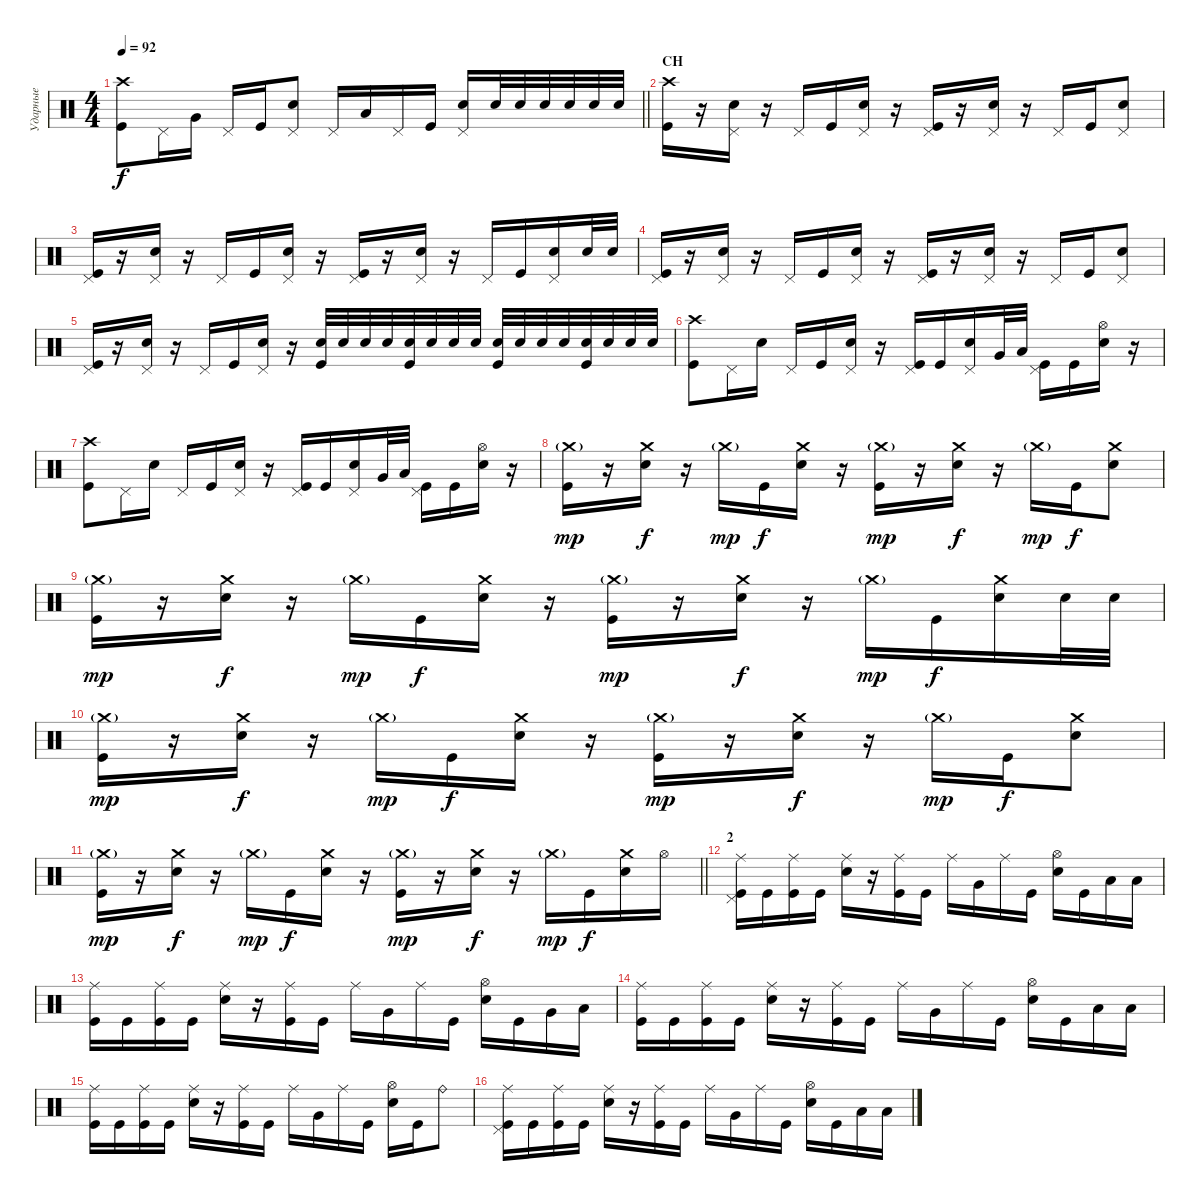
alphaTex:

\track ("Ударные" "Ударные") {instrument percussion}
\staff {score}
\articulation defaults
\ts (4 4)
\tempo 92
\clef neutral
\barLineRight lightlight
\ks c
("Kick (hit)" "Crash high (hit)").8{dy f} "Pedal Hi-Hat (hit)".16 "Very Low Tom (hit)".16 "Pedal Hi-Hat (hit)".16 "Kick (hit)".16 ("Snare (hit) 2" "Pedal Hi-Hat (hit)").8 "Pedal Hi-Hat (hit)".16 "Low Floor Tom (hit)".16 "Pedal Hi-Hat (hit)".16 "Kick (hit)".16 ("Snare (hit) 2" "Pedal Hi-Hat (hit)").16 "Snare (hit) 2".32 "Snare (hit) 2".32 "Snare (hit) 2".32 "Snare (hit) 2".32 "Snare (hit) 2".32 "Snare (hit) 2".32 |
\section ("" "CH")
("Kick (hit)" "Crash high (hit)").16 r.16 ("Snare (hit) 2" "Pedal Hi-Hat (hit)").16 r.16 "Pedal Hi-Hat (hit)".16 "Kick (hit)".16 ("Snare (hit) 2" "Pedal Hi-Hat (hit)").16 r.16 ("Kick (hit)" "Pedal Hi-Hat (hit)").16 r.16 ("Snare (hit) 2" "Pedal Hi-Hat (hit)").16 r.16 "Pedal Hi-Hat (hit)".16 "Kick (hit)".16 ("Snare (hit) 2" "Pedal Hi-Hat (hit)").8 |
("Kick (hit)" "Pedal Hi-Hat (hit)").16 r.16 ("Snare (hit) 2" "Pedal Hi-Hat (hit)").16 r.16 "Pedal Hi-Hat (hit)".16 "Kick (hit)".16 ("Snare (hit) 2" "Pedal Hi-Hat (hit)").16 r.16 ("Kick (hit)" "Pedal Hi-Hat (hit)").16 r.16 ("Snare (hit) 2" "Pedal Hi-Hat (hit)").16 r.16 "Pedal Hi-Hat (hit)".16 "Kick (hit)".16 ("Snare (hit) 2" "Pedal Hi-Hat (hit)").16 "Snare (hit) 2".32 "Snare (hit) 2".32 |
("Kick (hit)" "Pedal Hi-Hat (hit)").16 r.16 ("Snare (hit) 2" "Pedal Hi-Hat (hit)").16 r.16 "Pedal Hi-Hat (hit)".16 "Kick (hit)".16 ("Snare (hit) 2" "Pedal Hi-Hat (hit)").16 r.16 ("Kick (hit)" "Pedal Hi-Hat (hit)").16 r.16 ("Snare (hit) 2" "Pedal Hi-Hat (hit)").16 r.16 "Pedal Hi-Hat (hit)".16 "Kick (hit)".16 ("Snare (hit) 2" "Pedal Hi-Hat (hit)").8 |
("Kick (hit)" "Pedal Hi-Hat (hit)").16 r.16 ("Snare (hit) 2" "Pedal Hi-Hat (hit)").16 r.16 "Pedal Hi-Hat (hit)".16 "Kick (hit)".16 ("Snare (hit) 2" "Pedal Hi-Hat (hit)").16 r.16 ("Snare (hit) 2" "Kick (hit)").32 "Snare (hit) 2".32 "Snare (hit) 2".32 "Snare (hit) 2".32 ("Snare (hit) 2" "Kick (hit)").32 "Snare (hit) 2".32 "Snare (hit) 2".32 "Snare (hit) 2".32 ("Snare (hit) 2" "Kick (hit)").32 "Snare (hit) 2".32 "Snare (hit) 2".32 "Snare (hit) 2".32 ("Snare (hit) 2" "Kick (hit)").32 "Snare (hit) 2".32 "Snare (hit) 2".32 "Snare (hit) 2".32 |
("Kick (hit)" "Crash high (hit)").8 "Pedal Hi-Hat (hit)".16 "Snare (hit) 2".16 "Pedal Hi-Hat (hit)".16 "Kick (hit)".16 ("Snare (hit) 2" "Pedal Hi-Hat (hit)").16 r.16 ("Kick (hit)" "Pedal Hi-Hat (hit)").16 "Kick (hit)".16 ("Snare (hit) 2" "Pedal Hi-Hat (hit)").16 "Very Low Tom (hit)".32 "Low Floor Tom (hit)".32 ("Kick (hit)" "Pedal Hi-Hat (hit)").16 "Kick (hit)".16 ("Snare (hit) 2" "Hi-Hat (open)").16 r.16 |
("Kick (hit)" "Crash high (hit)").8 "Pedal Hi-Hat (hit)".16 "Snare (hit) 2".16 "Pedal Hi-Hat (hit)".16 "Kick (hit)".16 ("Snare (hit) 2" "Pedal Hi-Hat (hit)").16 r.16 ("Kick (hit)" "Pedal Hi-Hat (hit)").16 "Kick (hit)".16 ("Snare (hit) 2" "Pedal Hi-Hat (hit)").16 "Very Low Tom (hit)".32 "Low Floor Tom (hit)".32 ("Kick (hit)" "Pedal Hi-Hat (hit)").16 "Kick (hit)".16 ("Snare (hit) 2" "Hi-Hat (open)").16 r.16 |
("Kick (hit)" "Crash medium (hit)"{g}).16{dy mp} r.16 ("Snare (hit) 2" "Crash medium (hit)").16{dy f} r.16 "Crash medium (hit)"{g}.16{dy mp} "Kick (hit)".16{dy f} ("Snare (hit) 2" "Crash medium (hit)").16 r.16 ("Kick (hit)" "Crash medium (hit)"{g}).16{dy mp} r.16 ("Snare (hit) 2" "Crash medium (hit)").16{dy f} r.16 "Crash medium (hit)"{g}.16{dy mp} "Kick (hit)".16{dy f} ("Snare (hit) 2" "Crash medium (hit)").8 |
("Kick (hit)" "Crash medium (hit)"{g}).16{dy mp} r.16 ("Snare (hit) 2" "Crash medium (hit)").16{dy f} r.16 "Crash medium (hit)"{g}.16{dy mp} "Kick (hit)".16{dy f} ("Snare (hit) 2" "Crash medium (hit)").16 r.16 ("Kick (hit)" "Crash medium (hit)"{g}).16{dy mp} r.16 ("Snare (hit) 2" "Crash medium (hit)").16{dy f} r.16 "Crash medium (hit)"{g}.16{dy mp} "Kick (hit)".16{dy f} ("Snare (hit) 2" "Crash medium (hit)").16 "Snare (hit) 2".32 "Snare (hit) 2".32 |
("Kick (hit)" "Crash medium (hit)"{g}).16{dy mp} r.16 ("Snare (hit) 2" "Crash medium (hit)").16{dy f} r.16 "Crash medium (hit)"{g}.16{dy mp} "Kick (hit)".16{dy f} ("Snare (hit) 2" "Crash medium (hit)").16 r.16 ("Kick (hit)" "Crash medium (hit)"{g}).16{dy mp} r.16 ("Snare (hit) 2" "Crash medium (hit)").16{dy f} r.16 "Crash medium (hit)"{g}.16{dy mp} "Kick (hit)".16{dy f} ("Snare (hit) 2" "Crash medium (hit)").8 |
\barLineRight lightlight
("Kick (hit)" "Crash medium (hit)"{g}).16{dy mp} r.16 ("Snare (hit) 2" "Crash medium (hit)").16{dy f} r.16 "Crash medium (hit)"{g}.16{dy mp} "Kick (hit)".16{dy f} ("Snare (hit) 2" "Crash medium (hit)").16 r.16 ("Kick (hit)" "Crash medium (hit)"{g}).16{dy mp} r.16 ("Snare (hit) 2" "Crash medium (hit)").16{dy f} r.16 "Crash medium (hit)"{g}.16{dy mp} "Kick (hit)".16{dy f} ("Snare (hit) 2" "Crash medium (hit)").16 "Hi-Hat (open)".16 |
\section ("" "2")
("Kick (hit)" "Ride (middle)" "Pedal Hi-Hat (hit)").16 "Kick (hit)".16 ("Kick (hit)" "Ride (middle)").16 "Kick (hit)".16 ("Snare (hit) 2" "Ride (middle)").16 r.16 ("Kick (hit)" "Ride (middle)").16 "Kick (hit)".16 "Ride (middle)".16 "Very Low Tom (hit)".16 "Ride (middle)".16 "Kick (hit)".16 ("Snare (hit) 2" "Hi-Hat (open)").16 "Kick (hit)".16 "Low Floor Tom (hit)".16 "Low Floor Tom (hit)".16 |
("Kick (hit)" "Ride (middle)").16 "Kick (hit)".16 ("Kick (hit)" "Ride (middle)").16 "Kick (hit)".16 ("Snare (hit) 2" "Ride (middle)").16 r.16 ("Kick (hit)" "Ride (middle)").16 "Kick (hit)".16 "Ride (middle)".16 "Very Low Tom (hit)".16 "Ride (middle)".16 "Kick (hit)".16 ("Snare (hit) 2" "Hi-Hat (open)").16 "Kick (hit)".16 "Very Low Tom (hit)".16 "Low Floor Tom (hit)".16 |
("Kick (hit)" "Ride (middle)").16 "Kick (hit)".16 ("Kick (hit)" "Ride (middle)").16 "Kick (hit)".16 ("Snare (hit) 2" "Ride (middle)").16 r.16 ("Kick (hit)" "Ride (middle)").16 "Kick (hit)".16 "Ride (middle)".16 "Very Low Tom (hit)".16 "Ride (middle)".16 "Kick (hit)".16 ("Snare (hit) 2" "Hi-Hat (open)").16 "Kick (hit)".16 "Low Floor Tom (hit)".16 "Low Floor Tom (hit)".16 |
("Kick (hit)" "Ride (middle)").16 "Kick (hit)".16 ("Kick (hit)" "Ride (middle)").16 "Kick (hit)".16 ("Snare (hit) 2" "Ride (middle)").16 r.16 ("Kick (hit)" "Ride (middle)").16 "Kick (hit)".16 "Ride (middle)".16 "Very Low Tom (hit)".16 "Ride (middle)".16 "Kick (hit)".16 ("Snare (hit) 2" "Hi-Hat (open)").16 "Kick (hit)".16 "Ride (bell)".8 |
("Kick (hit)" "Ride (middle)" "Pedal Hi-Hat (hit)").16 "Kick (hit)".16 ("Kick (hit)" "Ride (middle)").16 "Kick (hit)".16 ("Snare (hit) 2" "Ride (middle)").16 r.16 ("Kick (hit)" "Ride (middle)").16 "Kick (hit)".16 "Ride (middle)".16 "Very Low Tom (hit)".16 "Ride (middle)".16 "Kick (hit)".16 ("Snare (hit) 2" "Hi-Hat (open)").16 "Kick (hit)".16 "Low Floor Tom (hit)".16 "Low Floor Tom (hit)".16
